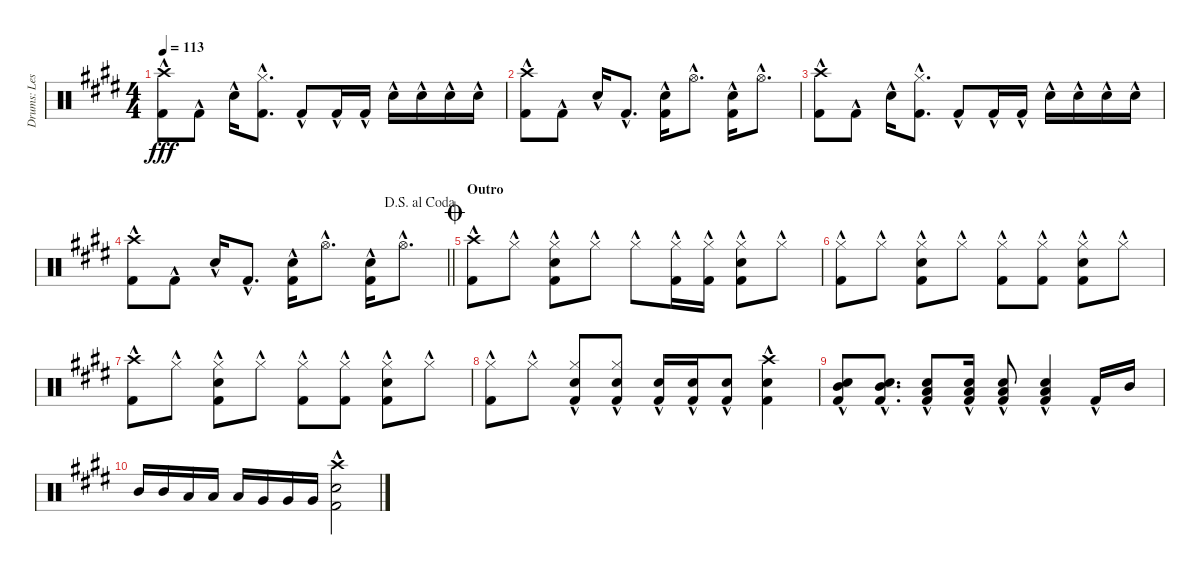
\track ("Drums: Les" "Drums: Les") {instrument percussion}
\staff {score}
\articulation defaults
\ts (4 4)
\tempo 113
\clef neutral
\ks e
("Crash high (hit)"{hac} "Kick (hit) 2"{hac}).8{dy fff} "Kick (hit) 2"{hac}.8 "Electric Snare (hit)"{hac}.16 ("Hi-Hat (closed)"{hac} "Kick (hit) 2"{hac}).8{d} "Kick (hit) 2"{hac}.8 "Kick (hit) 2"{hac}.16 "Kick (hit) 2"{hac}.16 "Electric Snare (hit)"{hac}.16 "Electric Snare (hit)"{hac}.16 "Electric Snare (hit)"{hac}.16 "Electric Snare (hit)"{hac}.16 |
("Crash high (hit)"{hac} "Kick (hit) 2"{hac}).8 "Kick (hit) 2"{hac}.8 "Electric Snare (hit)"{hac}.16 "Kick (hit) 2"{hac}.8{d} ("Electric Snare (hit)"{hac} "Kick (hit) 2"{hac}).16 "Hi-Hat (open)"{hac}.8{d} ("Electric Snare (hit)"{hac} "Kick (hit) 2"{hac}).16 "Hi-Hat (open)"{hac}.8{d} |
("Crash high (hit)"{hac} "Kick (hit) 2"{hac}).8 "Kick (hit) 2"{hac}.8 "Electric Snare (hit)"{hac}.16 ("Hi-Hat (closed)"{hac} "Kick (hit) 2"{hac}).8{d} "Kick (hit) 2"{hac}.8 "Kick (hit) 2"{hac}.16 "Kick (hit) 2"{hac}.16 "Electric Snare (hit)"{hac}.16 "Electric Snare (hit)"{hac}.16 "Electric Snare (hit)"{hac}.16 "Electric Snare (hit)"{hac}.16 |
\jump dalsegnoalcoda
\barLineRight lightlight
("Crash high (hit)"{hac} "Kick (hit) 2"{hac}).8 "Kick (hit) 2"{hac}.8 "Electric Snare (hit)"{hac}.16 "Kick (hit) 2"{hac}.8{d} ("Electric Snare (hit)"{hac} "Kick (hit) 2"{hac}).16 "Hi-Hat (open)"{hac}.8{d} ("Electric Snare (hit)"{hac} "Kick (hit) 2"{hac}).16 "Hi-Hat (open)"{hac}.8{d} |
\section ("" "Outro")
\jump coda
("Crash high (hit)"{hac} "Kick (hit) 2"{hac}).8 "Hi-Hat (closed)"{hac}.8 ("Hi-Hat (closed)"{hac} "Snare (hit) 2"{hac} "Kick (hit) 2"{hac}).8 "Hi-Hat (closed)"{hac}.8 "Hi-Hat (closed)"{hac}.8 ("Hi-Hat (closed)"{hac} "Kick (hit) 2"{hac}).16 ("Hi-Hat (closed)"{hac} "Kick (hit) 2"{hac}).16 ("Hi-Hat (closed)"{hac} "Snare (hit) 2"{hac} "Kick (hit) 2"{hac}).8 "Hi-Hat (closed)"{hac}.8 |
("Hi-Hat (closed)"{hac} "Kick (hit) 2"{hac}).8 "Hi-Hat (closed)"{hac}.8 ("Hi-Hat (closed)"{hac} "Snare (hit) 2"{hac} "Kick (hit) 2"{hac}).8 "Hi-Hat (closed)"{hac}.8 ("Hi-Hat (closed)"{hac} "Kick (hit) 2"{hac}).8 ("Hi-Hat (closed)"{hac} "Kick (hit) 2"{hac}).8 ("Hi-Hat (closed)"{hac} "Snare (hit) 2"{hac} "Kick (hit) 2"{hac}).8 "Hi-Hat (closed)"{hac}.8 |
("Crash high (hit)"{hac} "Kick (hit) 2"{hac}).8 "Hi-Hat (closed)"{hac}.8 ("Hi-Hat (closed)"{hac} "Snare (hit) 2"{hac} "Kick (hit) 2"{hac}).8 "Hi-Hat (closed)"{hac}.8 ("Hi-Hat (closed)"{hac} "Kick (hit) 2"{hac}).8 ("Hi-Hat (closed)"{hac} "Kick (hit) 2"{hac}).8 ("Hi-Hat (closed)"{hac} "Snare (hit) 2"{hac} "Kick (hit) 2"{hac}).8 "Hi-Hat (closed)"{hac}.8 |
("Hi-Hat (closed)"{hac} "Kick (hit) 2"{hac}).8 "Hi-Hat (closed)"{hac}.8 ("Hi-Hat (closed)"{hac} "Snare (hit) 2"{hac} "Kick (hit) 2"{hac}).8 ("Hi-Hat (closed)"{hac} "Snare (hit) 2"{hac} "Kick (hit) 2"{hac}).8 ("Snare (hit) 2"{hac} "Kick (hit) 2"{hac}).16 ("Snare (hit) 2"{hac} "Kick (hit) 2"{hac}).16 ("Snare (hit) 2"{hac} "Kick (hit) 2"{hac}).8 ("Crash high (hit)"{hac} "Snare (hit) 2"{hac} "Kick (hit) 2"{hac}).4 |
("Snare (hit) 2" "Mid Tom (hit)"{hac} "Kick (hit) 2"{hac}).8 ("Snare (hit) 2" "Mid Tom (hit)"{hac} "Kick (hit) 2"{hac}).8{d} ("Snare (hit) 2" "Low Tom (hit)"{hac} "Kick (hit) 2"{hac}).8 ("Snare (hit) 2" "Low Tom (hit)"{hac} "Kick (hit) 2"{hac}).16 ("Snare (hit) 2" "Low Tom (hit)"{hac} "Kick (hit) 2"{hac}).8 ("Snare (hit) 2" "Low Tom (hit)"{hac} "Kick (hit) 2"{hac}).4 "Kick (hit) 2"{hac}.16 "Mid Tom (hit)".16 |
"Mid Tom (hit)".16 "Mid Tom (hit)".16 "Low Tom (hit)".16 "Low Tom (hit)".16 "Low Tom (hit)".16 "Very Low Tom (hit)".16 "Very Low Tom (hit)".16 "Very Low Tom (hit)".16 ("Crash high (hit)"{hac} "Snare (hit) 2" "Kick (hit) 2"{hac}).2
